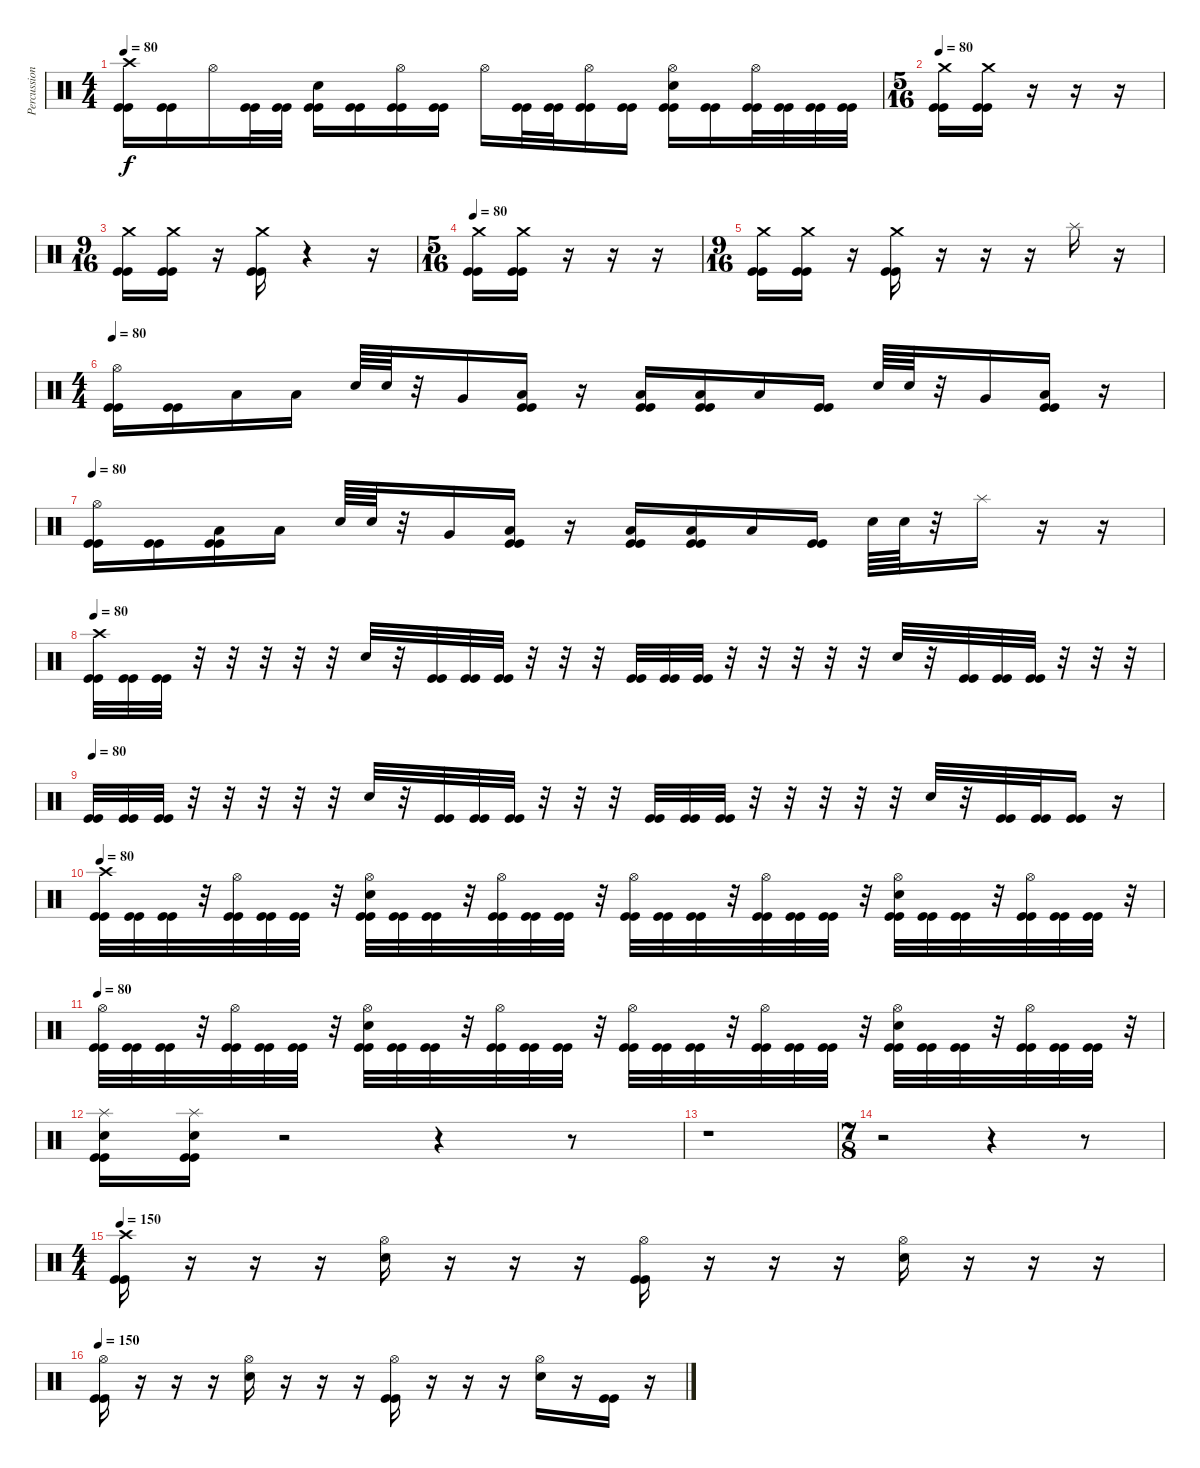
\track ("Percussions" "Percussion") {instrument percussion}
\staff {score}
\articulation defaults
\ts (4 4)
\tempo 80
\clef neutral
\ks c
("Crash high (hit)" "Kick (hit)" "Kick (hit)").16{dy f} ("Kick (hit)" "Kick (hit)").16 "Hi-Hat (open)".16 ("Kick (hit)" "Kick (hit)").32 ("Kick (hit)" "Kick (hit)").32 ("Electric Snare (hit)" "Kick (hit)" "Kick (hit)").16 ("Kick (hit)" "Kick (hit)").16 ("Hi-Hat (open)" "Kick (hit)" "Kick (hit)").16 ("Kick (hit)" "Kick (hit)").16 "Hi-Hat (open)".16 ("Kick (hit)" "Kick (hit)").32 ("Kick (hit)" "Kick (hit)").32 ("Hi-Hat (open)" "Kick (hit)" "Kick (hit)").16 ("Kick (hit)" "Kick (hit)").16 ("Hi-Hat (open)" "Electric Snare (hit)" "Kick (hit)" "Kick (hit)").16 ("Kick (hit)" "Kick (hit)").16 ("Hi-Hat (open)" "Kick (hit)" "Kick (hit)").32 ("Kick (hit)" "Kick (hit)").32 ("Kick (hit)" "Kick (hit)").32 ("Kick (hit)" "Kick (hit)").32 |
\ts (5 16)
\tempo 80
("Crash medium (hit)" "Kick (hit)" "Kick (hit)").16 ("Crash medium (hit)" "Kick (hit)" "Kick (hit)").16 r.16 r.16 r.16 |
\ts (9 16)
("Crash medium (hit)" "Kick (hit)" "Kick (hit)").16 ("Crash medium (hit)" "Kick (hit)" "Kick (hit)").16 r.16 ("Crash medium (hit)" "Kick (hit)" "Kick (hit)").16 r.4 r.16 |
\ts (5 16)
\tempo 80
("Crash medium (hit)" "Kick (hit)" "Kick (hit)").16 ("Crash medium (hit)" "Kick (hit)" "Kick (hit)").16 r.16 r.16 r.16 |
\ts (9 16)
("Crash medium (hit)" "Kick (hit)" "Kick (hit)").16 ("Crash medium (hit)" "Kick (hit)" "Kick (hit)").16 r.16 ("Crash medium (hit)" "Kick (hit)" "Kick (hit)").16 r.16 r.16 r.16 "Splash (hit)".16 r.16 |
\ts (4 4)
\tempo 80
("Hi-Hat (open)" "Kick (hit)" "Kick (hit)").16 ("Kick (hit)" "Kick (hit)").16 "Low Tom (hit)".16 "Low Floor Tom (hit)".16 "Electric Snare (hit)".64 "Electric Snare (hit)".64 r.32 "Very Low Tom (hit)".16 ("Low Floor Tom (hit)" "Kick (hit)" "Kick (hit)").16 r.16 ("Low Tom (hit)" "Kick (hit)" "Kick (hit)").16 ("Low Floor Tom (hit)" "Kick (hit)" "Kick (hit)").16 "Low Floor Tom (hit)".16 ("Kick (hit)" "Kick (hit)").16 "Electric Snare (hit)".64 "Electric Snare (hit)".64 r.32 "Very Low Tom (hit)".16 ("Low Floor Tom (hit)" "Kick (hit)" "Kick (hit)").16 r.16 |
\tempo 80
("Hi-Hat (open)" "Kick (hit)" "Kick (hit)").16 ("Kick (hit)" "Kick (hit)").16 ("Low Tom (hit)" "Kick (hit)" "Kick (hit)").16 "Low Floor Tom (hit)".16 "Electric Snare (hit)".64 "Electric Snare (hit)".64 r.32 "Very Low Tom (hit)".16 ("Low Floor Tom (hit)" "Kick (hit)" "Kick (hit)").16 r.16 ("Low Tom (hit)" "Kick (hit)" "Kick (hit)").16 ("Low Floor Tom (hit)" "Kick (hit)" "Kick (hit)").16 "Low Floor Tom (hit)".16 ("Kick (hit)" "Kick (hit)").16 "Electric Snare (hit)".64 "Electric Snare (hit)".64 r.32 "Splash (hit)".16 r.16 r.16 |
\tempo 80
("Crash high (hit)" "Kick (hit)" "Kick (hit)").32 ("Kick (hit)" "Kick (hit)").32 ("Kick (hit)" "Kick (hit)").32 r.32 r.32 r.32 r.32 r.32 "Electric Snare (hit)".32 r.32 ("Kick (hit)" "Kick (hit)").32 ("Kick (hit)" "Kick (hit)").32 ("Kick (hit)" "Kick (hit)").32 r.32 r.32 r.32 ("Kick (hit)" "Kick (hit)").32 ("Kick (hit)" "Kick (hit)").32 ("Kick (hit)" "Kick (hit)").32 r.32 r.32 r.32 r.32 r.32 "Electric Snare (hit)".32 r.32 ("Kick (hit)" "Kick (hit)").32 ("Kick (hit)" "Kick (hit)").32 ("Kick (hit)" "Kick (hit)").32 r.32 r.32 r.32 |
\tempo 80
("Kick (hit)" "Kick (hit)").32 ("Kick (hit)" "Kick (hit)").32 ("Kick (hit)" "Kick (hit)").32 r.32 r.32 r.32 r.32 r.32 "Electric Snare (hit)".32 r.32 ("Kick (hit)" "Kick (hit)").32 ("Kick (hit)" "Kick (hit)").32 ("Kick (hit)" "Kick (hit)").32 r.32 r.32 r.32 ("Kick (hit)" "Kick (hit)").32 ("Kick (hit)" "Kick (hit)").32 ("Kick (hit)" "Kick (hit)").32 r.32 r.32 r.32 r.32 r.32 "Electric Snare (hit)".32 r.32 ("Kick (hit)" "Kick (hit)").32 ("Kick (hit)" "Kick (hit)").32 ("Kick (hit)" "Kick (hit)").16 r.16 |
\tempo 80
("Crash high (hit)" "Kick (hit)" "Kick (hit)").32 ("Kick (hit)" "Kick (hit)").32 ("Kick (hit)" "Kick (hit)").32 r.32 ("Hi-Hat (open)" "Kick (hit)" "Kick (hit)").32 ("Kick (hit)" "Kick (hit)").32 ("Kick (hit)" "Kick (hit)").32 r.32 ("Hi-Hat (open)" "Electric Snare (hit)" "Kick (hit)" "Kick (hit)").32 ("Kick (hit)" "Kick (hit)").32 ("Kick (hit)" "Kick (hit)").32 r.32 ("Hi-Hat (open)" "Kick (hit)" "Kick (hit)").32 ("Kick (hit)" "Kick (hit)").32 ("Kick (hit)" "Kick (hit)").32 r.32 ("Hi-Hat (open)" "Kick (hit)" "Kick (hit)").32 ("Kick (hit)" "Kick (hit)").32 ("Kick (hit)" "Kick (hit)").32 r.32 ("Hi-Hat (open)" "Kick (hit)" "Kick (hit)").32 ("Kick (hit)" "Kick (hit)").32 ("Kick (hit)" "Kick (hit)").32 r.32 ("Hi-Hat (open)" "Electric Snare (hit)" "Kick (hit)" "Kick (hit)").32 ("Kick (hit)" "Kick (hit)").32 ("Kick (hit)" "Kick (hit)").32 r.32 ("Hi-Hat (open)" "Kick (hit)" "Kick (hit)").32 ("Kick (hit)" "Kick (hit)").32 ("Kick (hit)" "Kick (hit)").32 r.32 |
\tempo 80
("Hi-Hat (open)" "Kick (hit)" "Kick (hit)").32 ("Kick (hit)" "Kick (hit)").32 ("Kick (hit)" "Kick (hit)").32 r.32 ("Hi-Hat (open)" "Kick (hit)" "Kick (hit)").32 ("Kick (hit)" "Kick (hit)").32 ("Kick (hit)" "Kick (hit)").32 r.32 ("Hi-Hat (open)" "Electric Snare (hit)" "Kick (hit)" "Kick (hit)").32 ("Kick (hit)" "Kick (hit)").32 ("Kick (hit)" "Kick (hit)").32 r.32 ("Hi-Hat (open)" "Kick (hit)" "Kick (hit)").32 ("Kick (hit)" "Kick (hit)").32 ("Kick (hit)" "Kick (hit)").32 r.32 ("Hi-Hat (open)" "Kick (hit)" "Kick (hit)").32 ("Kick (hit)" "Kick (hit)").32 ("Kick (hit)" "Kick (hit)").32 r.32 ("Hi-Hat (open)" "Kick (hit)" "Kick (hit)").32 ("Kick (hit)" "Kick (hit)").32 ("Kick (hit)" "Kick (hit)").32 r.32 ("Hi-Hat (open)" "Electric Snare (hit)" "Kick (hit)" "Kick (hit)").32 ("Kick (hit)" "Kick (hit)").32 ("Kick (hit)" "Kick (hit)").32 r.32 ("Hi-Hat (open)" "Kick (hit)" "Kick (hit)").32 ("Kick (hit)" "Kick (hit)").32 ("Kick (hit)" "Kick (hit)").32 r.32 |
("Splash (hit)" "Electric Snare (hit)" "Kick (hit)" "Kick (hit)").16 ("Splash (hit)" "Electric Snare (hit)" "Kick (hit)" "Kick (hit)").16 r.2 r.4 r.8 |
r.1 |
\ts (7 8)
r.2 r.4 r.8 |
\ts (4 4)
\tempo 150
("Crash high (hit)" "Kick (hit)" "Kick (hit)").16 r.16 r.16 r.16 ("Hi-Hat (open)" "Electric Snare (hit)").16 r.16 r.16 r.16 ("Hi-Hat (open)" "Kick (hit)" "Kick (hit)").16 r.16 r.16 r.16 ("Hi-Hat (open)" "Electric Snare (hit)").16 r.16 r.16 r.16 |
\tempo 150
("Hi-Hat (open)" "Kick (hit)" "Kick (hit)").16 r.16 r.16 r.16 ("Hi-Hat (open)" "Electric Snare (hit)").16 r.16 r.16 r.16 ("Hi-Hat (open)" "Kick (hit)" "Kick (hit)").16 r.16 r.16 r.16 ("Hi-Hat (open)" "Electric Snare (hit)").16 r.16 ("Kick (hit)" "Kick (hit)").16 r.16
